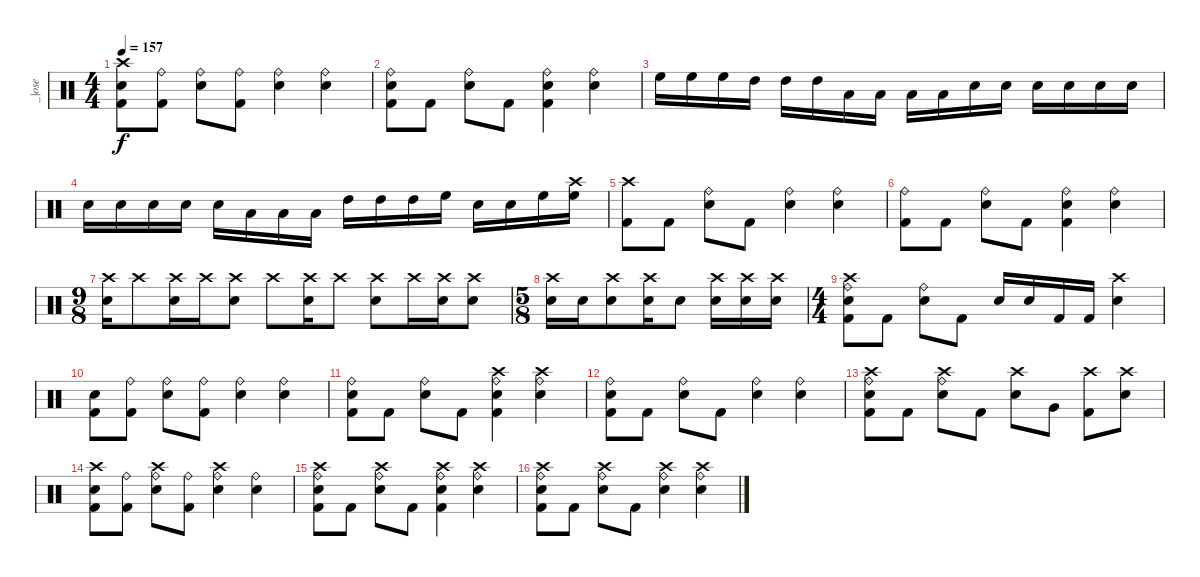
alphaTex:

\track ("_|ose" "_|ose") {instrument percussion}
\staff {score}
\articulation defaults
\ts (4 4)
\tempo 157
\clef neutral
\ks c
("Crash high (hit)" "Electric Snare (hit)" "Kick (hit) 2").8{dy f} ("Ride (bell)" "Kick (hit) 2").8 ("Ride (bell)" "Electric Snare (hit)").8 ("Ride (bell)" "Kick (hit) 2").8 ("Ride (bell)" "Electric Snare (hit)").4 ("Ride (bell)" "Electric Snare (hit)").4 |
("Ride (bell)" "Electric Snare (hit)" "Kick (hit) 2").8 "Kick (hit) 2".8 ("Ride (bell)" "Electric Snare (hit)").8 "Kick (hit) 2".8 ("Ride (bell)" "Electric Snare (hit)" "Kick (hit) 2").4 ("Ride (bell)" "Electric Snare (hit)").4 |
"High Floor Tom (hit)".16 "High Floor Tom (hit)".16 "High Floor Tom (hit)".16 "High Tom (hit)".16 "High Tom (hit)".16 "High Tom (hit)".16 "Low Tom (hit)".16 "Low Tom (hit)".16 "Low Tom (hit)".16 "Low Tom (hit)".16 "Electric Snare (hit)".16 "Electric Snare (hit)".16 "Electric Snare (hit)".16 "Snare (hit) 2".16 "Snare (hit) 2".16 "Snare (hit) 2".16 |
"Snare (hit) 2".16 "Snare (hit) 2".16 "Electric Snare (hit)".16 "Electric Snare (hit)".16 "Electric Snare (hit)".16 "Low Tom (hit)".16 "Low Tom (hit)".16 "Low Tom (hit)".16 "High Tom (hit)".16 "High Tom (hit)".16 "High Tom (hit)".16 "High Floor Tom (hit)".16 "Electric Snare (hit)".16 "Snare (hit) 2".16 "High Floor Tom (hit)".16 ("Crash high (hit)" "High Floor Tom (hit)").16 |
("Crash high (hit)" "Kick (hit) 2").8 "Kick (hit) 2".8 ("Ride (bell)" "Electric Snare (hit)").8 "Kick (hit) 2".8 ("Ride (bell)" "Electric Snare (hit)").4 ("Ride (bell)" "Electric Snare (hit)").4 |
("Ride (bell)" "Kick (hit) 2").8 "Kick (hit) 2".8 ("Ride (bell)" "Electric Snare (hit)").8 "Kick (hit) 2".8 ("Ride (bell)" "Electric Snare (hit)" "Kick (hit) 2").4 ("Ride (bell)" "Electric Snare (hit)").4 |
\ts (9 8)
("Crash high (hit)" "Snare (hit) 2").16 "Crash high (hit)".8 ("Crash high (hit)" "Snare (hit) 2").16 "Crash high (hit)".16 ("Crash high (hit)" "Snare (hit) 2").8 "Crash high (hit)".8 ("Crash high (hit)" "Snare (hit) 2").16 "Crash high (hit)".8 ("Crash high (hit)" "Snare (hit) 2").8 "Crash high (hit)".16 ("Crash high (hit)" "Snare (hit) 2").16 ("Crash high (hit)" "Snare (hit) 2").8 |
\ts (5 8)
("Crash high (hit)" "Snare (hit) 2").16 "Snare (hit) 2".16 ("Crash high (hit)" "Snare (hit) 2").8 ("Crash high (hit)" "Snare (hit) 2").16 "Snare (hit) 2".8 ("Crash high (hit)" "Snare (hit) 2").16 ("Crash high (hit)" "Snare (hit) 2").16 ("Crash high (hit)" "Snare (hit) 2").16 |
\ts (4 4)
("Crash high (hit)" "Ride (bell)" "Electric Snare (hit)" "Kick (hit) 2").8 "Kick (hit) 2".8 ("Ride (bell)" "Electric Snare (hit)").8 "Kick (hit) 2".8 "Electric Snare (hit)".16 "Electric Snare (hit)".16 "Kick (hit) 2".16 "Kick (hit) 2".16 ("Crash high (hit)" "Electric Snare (hit)").4 |
("Electric Snare (hit)" "Kick (hit) 2").8 ("Ride (bell)" "Kick (hit) 2").8 ("Ride (bell)" "Electric Snare (hit)").8 ("Ride (bell)" "Kick (hit) 2").8 ("Ride (bell)" "Electric Snare (hit)").4 ("Ride (bell)" "Electric Snare (hit)").4 |
("Ride (bell)" "Electric Snare (hit)" "Kick (hit) 2").8 "Kick (hit) 2".8 ("Ride (bell)" "Electric Snare (hit)").8 "Kick (hit) 2".8 ("Crash high (hit)" "Ride (bell)" "Electric Snare (hit)" "Kick (hit) 2").4 ("Crash high (hit)" "Ride (bell)" "Electric Snare (hit)").4 |
("Ride (bell)" "Electric Snare (hit)" "Kick (hit) 2").8 "Kick (hit) 2".8 ("Ride (bell)" "Electric Snare (hit)").8 "Kick (hit) 2".8 ("Ride (bell)" "Electric Snare (hit)").4 ("Ride (bell)" "Electric Snare (hit)").4 |
("Crash high (hit)" "Ride (bell)" "Electric Snare (hit)" "Kick (hit) 2").8 "Kick (hit) 2".8 ("Crash high (hit)" "Ride (bell)" "Electric Snare (hit)").8 "Kick (hit) 2".8 ("Crash high (hit)" "Electric Snare (hit)").8 "Very Low Tom (hit)".8 ("Crash high (hit)" "Kick (hit) 2").8 ("Crash high (hit)" "Electric Snare (hit)").8 |
("Crash high (hit)" "Electric Snare (hit)" "Kick (hit) 2").8 ("Ride (bell)" "Kick (hit) 2").8 ("Crash high (hit)" "Ride (bell)" "Electric Snare (hit)").8 ("Ride (bell)" "Kick (hit) 2").8 ("Crash high (hit)" "Ride (bell)" "Electric Snare (hit)").4 ("Ride (bell)" "Electric Snare (hit)").4 |
("Crash high (hit)" "Ride (bell)" "Electric Snare (hit)" "Kick (hit) 2").8 "Kick (hit) 2".8 ("Crash high (hit)" "Ride (bell)" "Electric Snare (hit)").8 "Kick (hit) 2".8 ("Crash high (hit)" "Ride (bell)" "Electric Snare (hit)" "Kick (hit) 2").4 ("Crash high (hit)" "Ride (bell)" "Electric Snare (hit)").4 |
("Crash high (hit)" "Ride (bell)" "Electric Snare (hit)" "Kick (hit) 2").8 "Kick (hit) 2".8 ("Crash high (hit)" "Ride (bell)" "Electric Snare (hit)").8 "Kick (hit) 2".8 ("Crash high (hit)" "Ride (bell)" "Electric Snare (hit)").4 ("Crash high (hit)" "Ride (bell)" "Electric Snare (hit)").4
